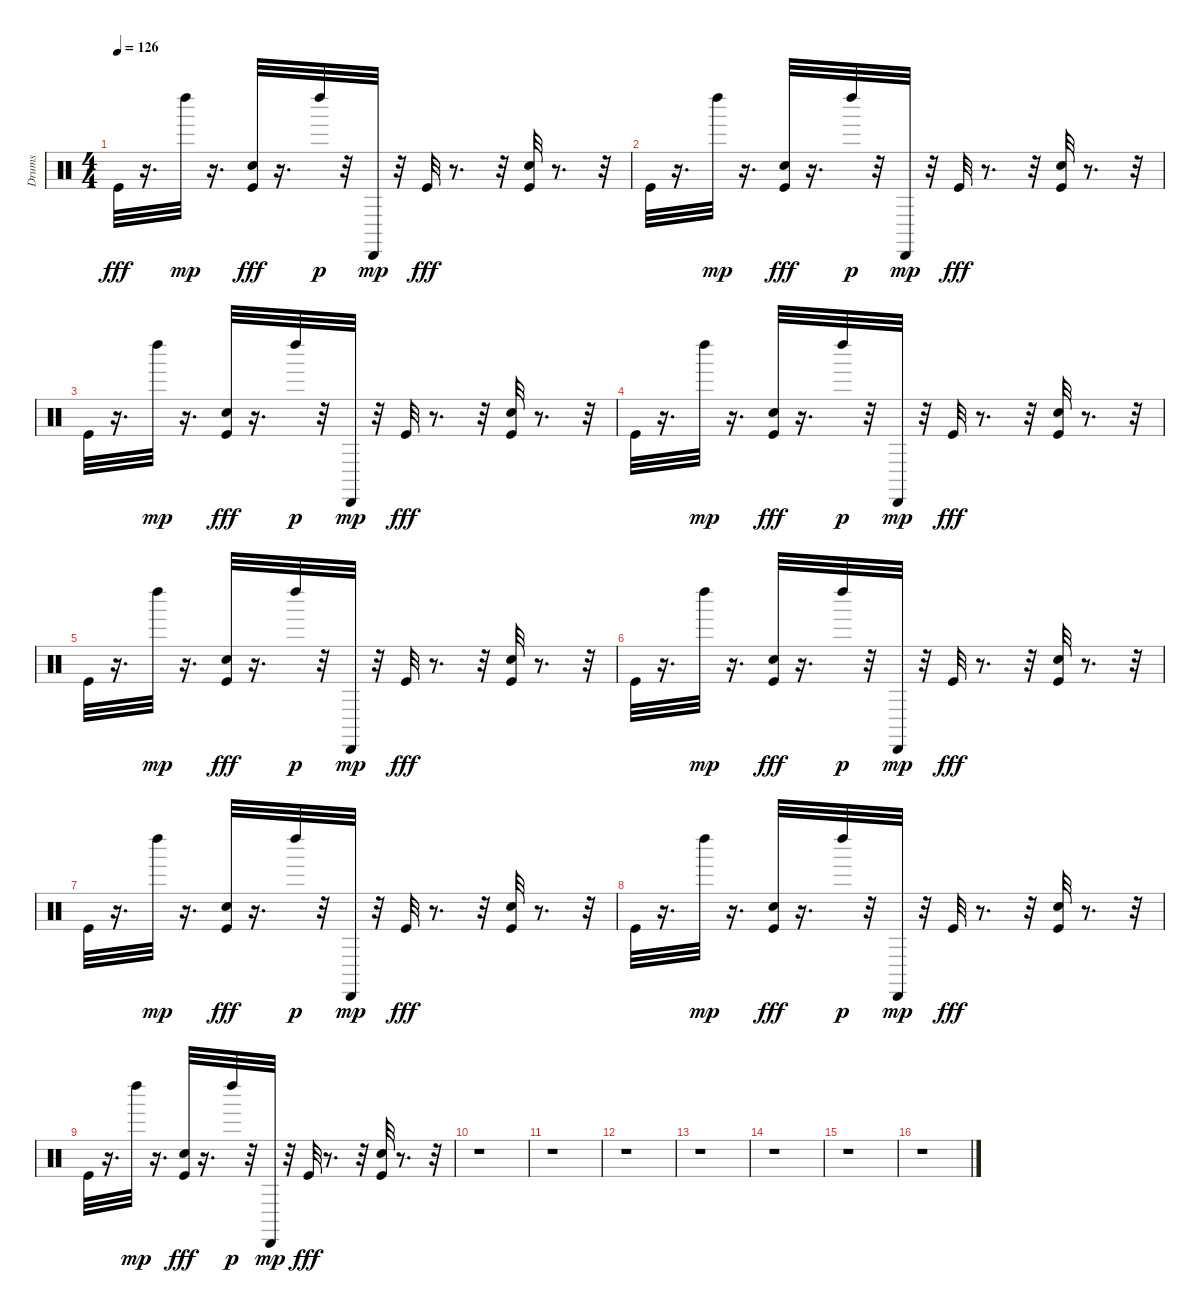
\track ("Drums" "Drums") {instrument percussion}
\staff {score}
\articulation defaults
\ts (4 4)
\tempo 126
\clef neutral
\ks c "Kick (hit)".32{dy fff}
r.16{d} "Left Maraca (hit)".32{dy mp} r.16{d} ("Kick (hit)" "Hand Clap (hit)").32{dy fff} r.16{d} "Left Maraca (hit)".32{dy p} r.32 "Cabasa (hit)".32{dy mp} r.32 "Kick (hit)".32{dy fff} r.8{d} r.32 ("Kick (hit)" "Hand Clap (hit)").32 r.8{d} r.32 |
"Kick (hit)".32 r.16{d} "Left Maraca (hit)".32{dy mp} r.16{d} ("Kick (hit)" "Hand Clap (hit)").32{dy fff} r.16{d} "Left Maraca (hit)".32{dy p} r.32 "Cabasa (hit)".32{dy mp} r.32 "Kick (hit)".32{dy fff} r.8{d} r.32 ("Kick (hit)" "Hand Clap (hit)").32 r.8{d} r.32 |
"Kick (hit)".32 r.16{d} "Left Maraca (hit)".32{dy mp} r.16{d} ("Kick (hit)" "Hand Clap (hit)").32{dy fff} r.16{d} "Left Maraca (hit)".32{dy p} r.32 "Cabasa (hit)".32{dy mp} r.32 "Kick (hit)".32{dy fff} r.8{d} r.32 ("Kick (hit)" "Hand Clap (hit)").32 r.8{d} r.32 |
"Kick (hit)".32 r.16{d} "Left Maraca (hit)".32{dy mp} r.16{d} ("Kick (hit)" "Hand Clap (hit)").32{dy fff} r.16{d} "Left Maraca (hit)".32{dy p} r.32 "Cabasa (hit)".32{dy mp} r.32 "Kick (hit)".32{dy fff} r.8{d} r.32 ("Kick (hit)" "Hand Clap (hit)").32 r.8{d} r.32 |
"Kick (hit)".32 r.16{d} "Left Maraca (hit)".32{dy mp} r.16{d} ("Kick (hit)" "Hand Clap (hit)").32{dy fff} r.16{d} "Left Maraca (hit)".32{dy p} r.32 "Cabasa (hit)".32{dy mp} r.32 "Kick (hit)".32{dy fff} r.8{d} r.32 ("Kick (hit)" "Hand Clap (hit)").32 r.8{d} r.32 |
"Kick (hit)".32 r.16{d} "Left Maraca (hit)".32{dy mp} r.16{d} ("Kick (hit)" "Hand Clap (hit)").32{dy fff} r.16{d} "Left Maraca (hit)".32{dy p} r.32 "Cabasa (hit)".32{dy mp} r.32 "Kick (hit)".32{dy fff} r.8{d} r.32 ("Kick (hit)" "Hand Clap (hit)").32 r.8{d} r.32 |
"Kick (hit)".32 r.16{d} "Left Maraca (hit)".32{dy mp} r.16{d} ("Kick (hit)" "Hand Clap (hit)").32{dy fff} r.16{d} "Left Maraca (hit)".32{dy p} r.32 "Cabasa (hit)".32{dy mp} r.32 "Kick (hit)".32{dy fff} r.8{d} r.32 ("Kick (hit)" "Hand Clap (hit)").32 r.8{d} r.32 |
"Kick (hit)".32 r.16{d} "Left Maraca (hit)".32{dy mp} r.16{d} ("Kick (hit)" "Hand Clap (hit)").32{dy fff} r.16{d} "Left Maraca (hit)".32{dy p} r.32 "Cabasa (hit)".32{dy mp} r.32 "Kick (hit)".32{dy fff} r.8{d} r.32 ("Kick (hit)" "Hand Clap (hit)").32 r.8{d} r.32 |
"Kick (hit)".32 r.16{d} "Left Maraca (hit)".32{dy mp} r.16{d} ("Kick (hit)" "Hand Clap (hit)").32{dy fff} r.16{d} "Left Maraca (hit)".32{dy p} r.32 "Cabasa (hit)".32{dy mp} r.32 "Kick (hit)".32{dy fff} r.8{d} r.32 ("Kick (hit)" "Hand Clap (hit)").32 r.8{d} r.32 |
r.1 |
r.1 |
r.1 |
r.1 |
r.1 |
r.1 |
r.1
